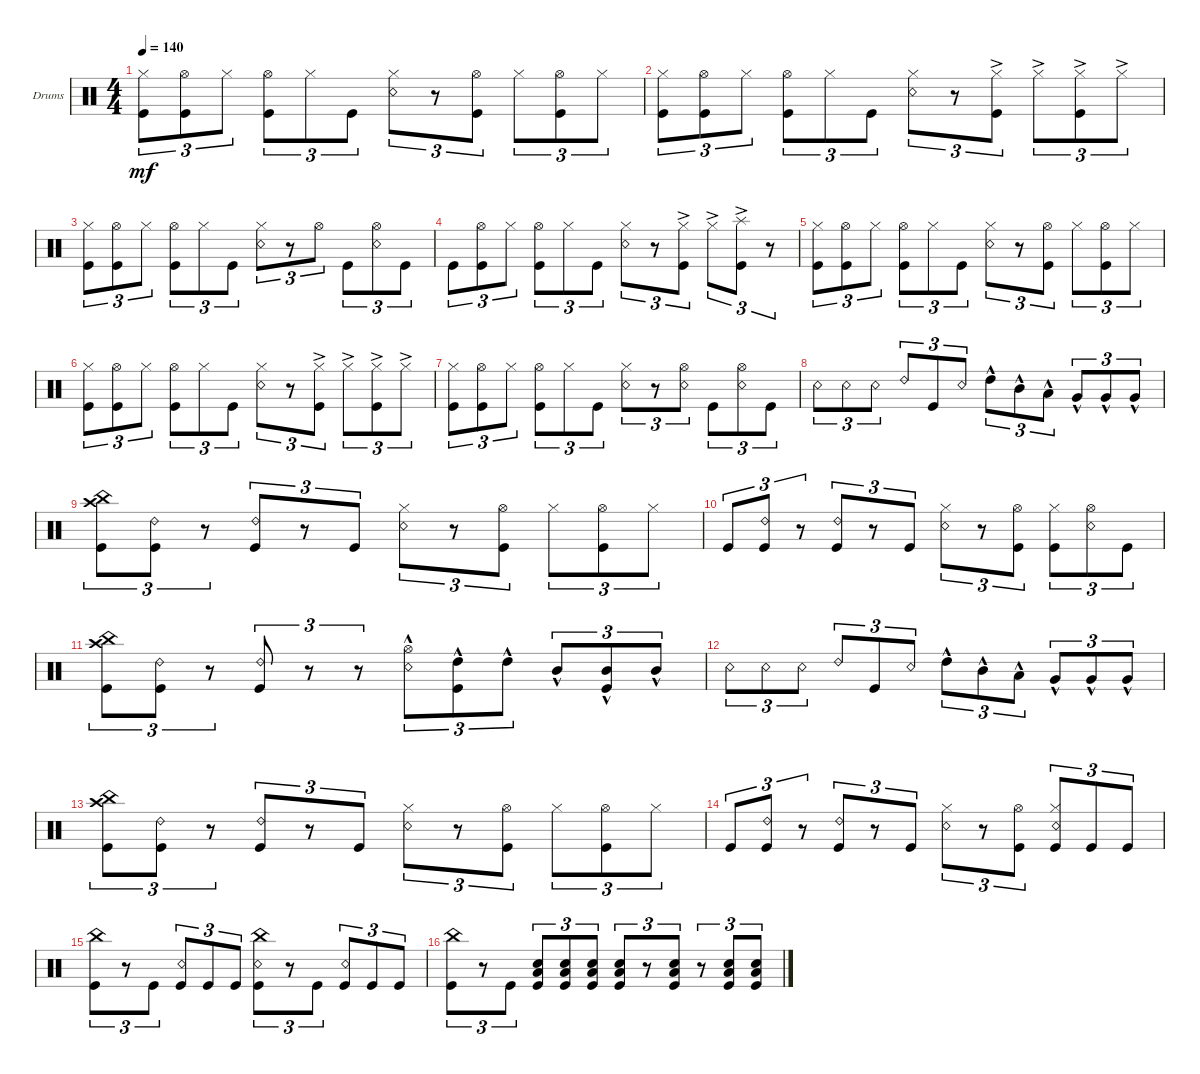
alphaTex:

\defaultSystemsLayout 4
\bracketExtendMode groupsimilarinstruments
\firstSystemTrackNameOrientation horizontal
\otherSystemsTrackNameOrientation horizontal
\track ("Drumkit" "Drums") {instrument percussion}
\staff {score}
\articulation defaults
\ts (4 4)
\tempo 140
\clef neutral
\ks c
("Kick (hit)" "Hi-Hat (closed)").8{tu (3 2) dy mf} ("Kick (hit)" "Hi-Hat (open)").8{tu (3 2)} "Hi-Hat (closed)".8{tu (3 2)} ("Hi-Hat (open)" "Kick (hit)").8{tu (3 2)} "Hi-Hat (closed)".8{tu (3 2)} "Kick (hit)".8{tu (3 2)} ("Snare (rim shot)" "Hi-Hat (closed)").8{tu (3 2)} r.8{tu (3 2)} ("Kick (hit)" "Hi-Hat (open)").8{tu (3 2)} "Hi-Hat (closed)".8{tu (3 2)} ("Kick (hit)" "Hi-Hat (open)").8{tu (3 2)} "Hi-Hat (closed)".8{tu (3 2)} |
("Kick (hit)" "Hi-Hat (closed)").8{tu (3 2)} ("Kick (hit)" "Hi-Hat (open)").8{tu (3 2)} "Hi-Hat (closed)".8{tu (3 2)} ("Hi-Hat (open)" "Kick (hit)").8{tu (3 2)} "Hi-Hat (closed)".8{tu (3 2)} "Kick (hit)".8{tu (3 2)} ("Snare (rim shot)" "Hi-Hat (closed)").8{tu (3 2)} r.8{tu (3 2)} ("Kick (hit)"{ac} "Hi-Hat (closed)"{ac}).8{tu (3 2)} "Hi-Hat (closed)"{ac}.8{tu (3 2)} ("Kick (hit)"{ac} "Hi-Hat (closed)"{ac}).8{tu (3 2)} "Hi-Hat (closed)"{ac}.8{tu (3 2)} |
("Kick (hit)" "Hi-Hat (closed)").8{tu (3 2)} ("Kick (hit)" "Hi-Hat (open)").8{tu (3 2)} "Hi-Hat (closed)".8{tu (3 2)} ("Hi-Hat (open)" "Kick (hit)").8{tu (3 2)} "Hi-Hat (closed)".8{tu (3 2)} "Kick (hit)".8{tu (3 2)} ("Snare (rim shot)" "Hi-Hat (closed)").8{tu (3 2)} r.8{tu (3 2)} "Hi-Hat (open)".8{tu (3 2)} "Kick (hit)".8{tu (3 2)} ("Hi-Hat (open)" "Snare (rim shot)").8{tu (3 2)} "Kick (hit)".8{tu (3 2)} |
"Kick (hit)".8{tu (3 2)} ("Kick (hit)" "Hi-Hat (open)").8{tu (3 2)} "Hi-Hat (closed)".8{tu (3 2)} ("Hi-Hat (open)" "Kick (hit)").8{tu (3 2)} "Hi-Hat (closed)".8{tu (3 2)} "Kick (hit)".8{tu (3 2)} ("Snare (rim shot)" "Hi-Hat (closed)").8{tu (3 2)} r.8{tu (3 2)} ("Kick (hit)"{ac} "Hi-Hat (closed)"{ac}).8{tu (3 2)} "Hi-Hat (closed)"{ac}.8{tu (3 2)} ("Kick (hit)"{ac} "Splash (hit)").8{tu (3 2)} r.8{tu (3 2)} |
("Kick (hit)" "Hi-Hat (closed)").8{tu (3 2)} ("Kick (hit)" "Hi-Hat (open)").8{tu (3 2)} "Hi-Hat (closed)".8{tu (3 2)} ("Hi-Hat (open)" "Kick (hit)").8{tu (3 2)} "Hi-Hat (closed)".8{tu (3 2)} "Kick (hit)".8{tu (3 2)} ("Snare (rim shot)" "Hi-Hat (closed)").8{tu (3 2)} r.8{tu (3 2)} ("Kick (hit)" "Hi-Hat (open)").8{tu (3 2)} "Hi-Hat (closed)".8{tu (3 2)} ("Kick (hit)" "Hi-Hat (open)").8{tu (3 2)} "Hi-Hat (closed)".8{tu (3 2)} |
("Kick (hit)" "Hi-Hat (closed)").8{tu (3 2)} ("Kick (hit)" "Hi-Hat (open)").8{tu (3 2)} "Hi-Hat (closed)".8{tu (3 2)} ("Hi-Hat (open)" "Kick (hit)").8{tu (3 2)} "Hi-Hat (closed)".8{tu (3 2)} "Kick (hit)".8{tu (3 2)} ("Snare (rim shot)" "Hi-Hat (closed)").8{tu (3 2)} r.8{tu (3 2)} ("Kick (hit)"{ac} "Hi-Hat (closed)"{ac}).8{tu (3 2)} "Hi-Hat (closed)"{ac}.8{tu (3 2)} ("Kick (hit)"{ac} "Hi-Hat (closed)"{ac}).8{tu (3 2)} "Hi-Hat (closed)"{ac}.8{tu (3 2)} |
("Kick (hit)" "Hi-Hat (closed)").8{tu (3 2)} ("Kick (hit)" "Hi-Hat (open)").8{tu (3 2)} "Hi-Hat (closed)".8{tu (3 2)} ("Hi-Hat (open)" "Kick (hit)").8{tu (3 2)} "Hi-Hat (closed)".8{tu (3 2)} "Kick (hit)".8{tu (3 2)} ("Snare (rim shot)" "Hi-Hat (closed)").8{tu (3 2)} r.8{tu (3 2)} ("Hi-Hat (open)" "Snare (rim shot)").8{tu (3 2)} "Kick (hit)".8{tu (3 2)} ("Hi-Hat (open)" "Snare (rim shot)").8{tu (3 2)} "Kick (hit)".8{tu (3 2)} |
"Snare (rim shot)".8{tu (3 2)} "Snare (rim shot)".8{tu (3 2)} "Snare (rim shot)".8{tu (3 2)} "Ride (bell) 2".8{tu (3 2)} "Kick (hit)".8{tu (3 2)} "Snare (rim shot)".8{tu (3 2)} "High Tom (hit)"{hac}.8{tu (3 2)} "Mid Tom (hit)"{hac}.8{tu (3 2)} "Low Tom (hit)"{hac}.8{tu (3 2)} "Very Low Tom (hit)"{hac}.8{tu (3 2)} "Very Low Tom (hit)"{hac}.8{tu (3 2)} "Very Low Tom (hit)"{hac}.8{tu (3 2)} |
("Kick (hit)" "Crash high (hit)" "China (hit)").8{tu (3 2)} ("Kick (hit)" "Ride (bell) 2").8{tu (3 2)} r.8{tu (3 2)} ("Kick (hit)" "Ride (bell) 2").8{tu (3 2)} r.8{tu (3 2)} "Kick (hit)".8{tu (3 2)} ("Snare (rim shot)" "Hi-Hat (closed)").8{tu (3 2)} r.8{tu (3 2)} ("Kick (hit)" "Hi-Hat (open)").8{tu (3 2)} "Hi-Hat (closed)".8{tu (3 2)} ("Kick (hit)" "Hi-Hat (open)").8{tu (3 2)} "Hi-Hat (closed)".8{tu (3 2)} |
"Kick (hit)".8{tu (3 2)} ("Kick (hit)" "Ride (bell) 2").8{tu (3 2)} r.8{tu (3 2)} ("Kick (hit)" "Ride (bell) 2").8{tu (3 2)} r.8{tu (3 2)} "Kick (hit)".8{tu (3 2)} ("Snare (rim shot)" "Hi-Hat (closed)").8{tu (3 2)} r.8{tu (3 2)} ("Kick (hit)" "Hi-Hat (open)").8{tu (3 2)} ("Hi-Hat (closed)" "Kick (hit)").8{tu (3 2)} ("Hi-Hat (open)" "Snare (rim shot)").8{tu (3 2)} "Kick (hit)".8{tu (3 2)} |
("Kick (hit)" "Crash high (hit)" "China (hit)").8{tu (3 2)} ("Kick (hit)" "Ride (bell) 2").8{tu (3 2)} r.8{tu (3 2)} ("Kick (hit)" "Ride (bell) 2").8{tu (3 2)} r.8{tu (3 2)} r.8{tu (3 2)} ("Snare (rim shot)"{hac} "Hi-Hat (open)"{hac}).8{tu (3 2)} ("High Tom (hit)"{hac} "Kick (hit)").8{tu (3 2)} "High Tom (hit)"{hac}.8{tu (3 2)} "Mid Tom (hit)"{hac}.8{tu (3 2)} ("Mid Tom (hit)"{hac} "Kick (hit)").8{tu (3 2)} "Mid Tom (hit)"{hac}.8{tu (3 2)} |
"Snare (rim shot)".8{tu (3 2)} "Snare (rim shot)".8{tu (3 2)} "Snare (rim shot)".8{tu (3 2)} "Ride (bell) 2".8{tu (3 2)} "Kick (hit)".8{tu (3 2)} "Snare (rim shot)".8{tu (3 2)} "High Tom (hit)"{hac}.8{tu (3 2)} "Mid Tom (hit)"{hac}.8{tu (3 2)} "Low Tom (hit)"{hac}.8{tu (3 2)} "Very Low Tom (hit)"{hac}.8{tu (3 2)} "Very Low Tom (hit)"{hac}.8{tu (3 2)} "Very Low Tom (hit)"{hac}.8{tu (3 2)} |
("Kick (hit)" "Crash high (hit)" "China (hit)").8{tu (3 2)} ("Kick (hit)" "Ride (bell) 2").8{tu (3 2)} r.8{tu (3 2)} ("Kick (hit)" "Ride (bell) 2").8{tu (3 2)} r.8{tu (3 2)} "Kick (hit)".8{tu (3 2)} ("Snare (rim shot)" "Hi-Hat (closed)").8{tu (3 2)} r.8{tu (3 2)} ("Kick (hit)" "Hi-Hat (open)").8{tu (3 2)} "Hi-Hat (closed)".8{tu (3 2)} ("Kick (hit)" "Hi-Hat (open)").8{tu (3 2)} "Hi-Hat (closed)".8{tu (3 2)} |
"Kick (hit)".8{tu (3 2)} ("Kick (hit)" "Ride (bell) 2").8{tu (3 2)} r.8{tu (3 2)} ("Kick (hit)" "Ride (bell) 2").8{tu (3 2)} r.8{tu (3 2)} "Kick (hit)".8{tu (3 2)} ("Snare (rim shot)" "Hi-Hat (closed)").8{tu (3 2)} r.8{tu (3 2)} ("Kick (hit)" "Hi-Hat (open)").8{tu (3 2)} ("Hi-Hat (closed)" "Kick (hit)" "Snare (rim shot)").8{tu (3 2)} "Kick (hit)".8{tu (3 2)} "Kick (hit)".8{tu (3 2)} |
("China (hit)" "Kick (hit)").8{tu (3 2)} r.8{tu (3 2)} "Kick (hit)".8{tu (3 2)} ("Kick (hit)" "Snare (rim shot)").8{tu (3 2)} "Kick (hit)".8{tu (3 2)} "Kick (hit)".8{tu (3 2)} ("Kick (hit)" "Snare (rim shot)" "China (hit)").8{tu (3 2)} r.8{tu (3 2)} "Kick (hit)".8{tu (3 2)} ("Kick (hit)" "Snare (rim shot)").8{tu (3 2)} "Kick (hit)".8{tu (3 2)} "Kick (hit)".8{tu (3 2)} |
("Kick (hit)" "China (hit)").8{tu (3 2)} r.8{tu (3 2)} "Kick (hit)".8{tu (3 2)} ("Kick (hit)" "Snare (hit) 2" "Low Tom (hit)").8{tu (3 2)} ("Kick (hit)" "Snare (hit) 2" "Low Tom (hit)").8{tu (3 2)} ("Kick (hit)" "Snare (hit) 2" "Low Tom (hit)").8{tu (3 2)} ("Kick (hit)" "Snare (hit) 2" "Low Tom (hit)").8{tu (3 2)} r.8{tu (3 2)} ("Kick (hit)" "Snare (hit) 2" "Low Tom (hit)").8{tu (3 2)} r.8{tu (3 2)} ("Kick (hit)" "Snare (hit) 2" "Low Tom (hit)").8{tu (3 2)} ("Kick (hit)" "Snare (hit) 2" "Low Tom (hit)").8{tu (3 2)}
